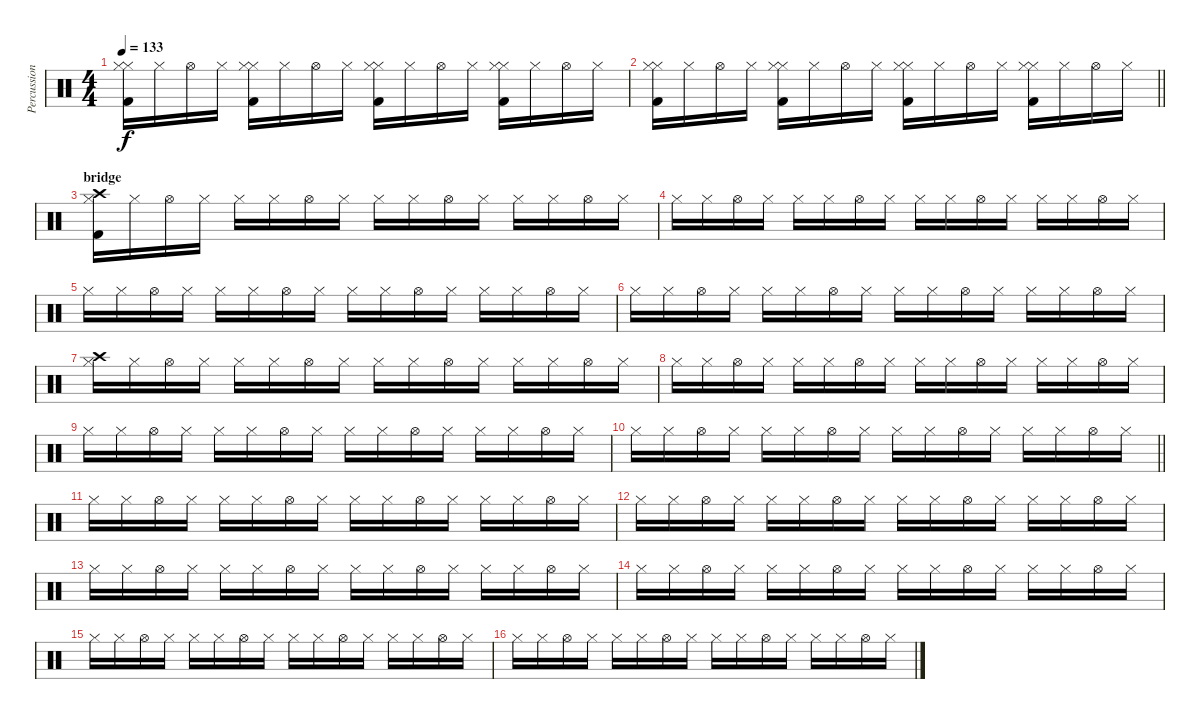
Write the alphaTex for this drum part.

\track ("Percussioni" "Percussion") {instrument percussion}
\staff {score}
\articulation defaults
\ts (4 4)
\tempo 133
\clef neutral
\ks c
("Hi-Hat (closed)" "Kick (hit) 2" "Hi-Hat (closed)").16{dy f} "Hi-Hat (closed)".16 "Hi-Hat (open)".16 "Hi-Hat (closed)".16 ("Hi-Hat (closed)" "Kick (hit) 2" "Hi-Hat (closed)").16 "Hi-Hat (closed)".16 "Hi-Hat (open)".16 "Hi-Hat (closed)".16 ("Hi-Hat (closed)" "Kick (hit) 2" "Hi-Hat (closed)").16 "Hi-Hat (closed)".16 "Hi-Hat (open)".16 "Hi-Hat (closed)".16 ("Hi-Hat (closed)" "Kick (hit) 2" "Hi-Hat (closed)").16 "Hi-Hat (closed)".16 "Hi-Hat (open)".16 "Hi-Hat (closed)".16 |
\barLineRight lightlight
("Hi-Hat (closed)" "Kick (hit) 2" "Hi-Hat (closed)").16 "Hi-Hat (closed)".16 "Hi-Hat (open)".16 "Hi-Hat (closed)".16 ("Hi-Hat (closed)" "Kick (hit) 2" "Hi-Hat (closed)").16 "Hi-Hat (closed)".16 "Hi-Hat (open)".16 "Hi-Hat (closed)".16 ("Hi-Hat (closed)" "Kick (hit) 2" "Hi-Hat (closed)").16 "Hi-Hat (closed)".16 "Hi-Hat (open)".16 "Hi-Hat (closed)".16 ("Hi-Hat (closed)" "Kick (hit) 2" "Hi-Hat (closed)").16 "Hi-Hat (closed)".16 "Hi-Hat (open)".16 "Hi-Hat (closed)".16 |
\section ("" "bridge")
("Crash high (hit)" "Hi-Hat (closed)" "Kick (hit) 2").16 "Hi-Hat (closed)".16 "Hi-Hat (open)".16 "Hi-Hat (closed)".16 "Hi-Hat (closed)".16 "Hi-Hat (closed)".16 "Hi-Hat (open)".16 "Hi-Hat (closed)".16 "Hi-Hat (closed)".16 "Hi-Hat (closed)".16 "Hi-Hat (open)".16 "Hi-Hat (closed)".16 "Hi-Hat (closed)".16 "Hi-Hat (closed)".16 "Hi-Hat (open)".16 "Hi-Hat (closed)".16 |
"Hi-Hat (closed)".16 "Hi-Hat (closed)".16 "Hi-Hat (open)".16 "Hi-Hat (closed)".16 "Hi-Hat (closed)".16 "Hi-Hat (closed)".16 "Hi-Hat (open)".16 "Hi-Hat (closed)".16 "Hi-Hat (closed)".16 "Hi-Hat (closed)".16 "Hi-Hat (open)".16 "Hi-Hat (closed)".16 "Hi-Hat (closed)".16 "Hi-Hat (closed)".16 "Hi-Hat (open)".16 "Hi-Hat (closed)".16 |
"Hi-Hat (closed)".16 "Hi-Hat (closed)".16 "Hi-Hat (open)".16 "Hi-Hat (closed)".16 "Hi-Hat (closed)".16 "Hi-Hat (closed)".16 "Hi-Hat (open)".16 "Hi-Hat (closed)".16 "Hi-Hat (closed)".16 "Hi-Hat (closed)".16 "Hi-Hat (open)".16 "Hi-Hat (closed)".16 "Hi-Hat (closed)".16 "Hi-Hat (closed)".16 "Hi-Hat (open)".16 "Hi-Hat (closed)".16 |
"Hi-Hat (closed)".16 "Hi-Hat (closed)".16 "Hi-Hat (open)".16 "Hi-Hat (closed)".16 "Hi-Hat (closed)".16 "Hi-Hat (closed)".16 "Hi-Hat (open)".16 "Hi-Hat (closed)".16 "Hi-Hat (closed)".16 "Hi-Hat (closed)".16 "Hi-Hat (open)".16 "Hi-Hat (closed)".16 "Hi-Hat (closed)".16 "Hi-Hat (closed)".16 "Hi-Hat (open)".16 "Hi-Hat (closed)".16 |
("Hi-Hat (closed)" "Crash high (hit)").16 "Hi-Hat (closed)".16 "Hi-Hat (open)".16 "Hi-Hat (closed)".16 "Hi-Hat (closed)".16 "Hi-Hat (closed)".16 "Hi-Hat (open)".16 "Hi-Hat (closed)".16 "Hi-Hat (closed)".16 "Hi-Hat (closed)".16 "Hi-Hat (open)".16 "Hi-Hat (closed)".16 "Hi-Hat (closed)".16 "Hi-Hat (closed)".16 "Hi-Hat (open)".16 "Hi-Hat (closed)".16 |
"Hi-Hat (closed)".16 "Hi-Hat (closed)".16 "Hi-Hat (open)".16 "Hi-Hat (closed)".16 "Hi-Hat (closed)".16 "Hi-Hat (closed)".16 "Hi-Hat (open)".16 "Hi-Hat (closed)".16 "Hi-Hat (closed)".16 "Hi-Hat (closed)".16 "Hi-Hat (open)".16 "Hi-Hat (closed)".16 "Hi-Hat (closed)".16 "Hi-Hat (closed)".16 "Hi-Hat (open)".16 "Hi-Hat (closed)".16 |
"Hi-Hat (closed)".16 "Hi-Hat (closed)".16 "Hi-Hat (open)".16 "Hi-Hat (closed)".16 "Hi-Hat (closed)".16 "Hi-Hat (closed)".16 "Hi-Hat (open)".16 "Hi-Hat (closed)".16 "Hi-Hat (closed)".16 "Hi-Hat (closed)".16 "Hi-Hat (open)".16 "Hi-Hat (closed)".16 "Hi-Hat (closed)".16 "Hi-Hat (closed)".16 "Hi-Hat (open)".16 "Hi-Hat (closed)".16 |
\barLineRight lightlight "Hi-Hat (closed)".16 "Hi-Hat (closed)".16 "Hi-Hat (open)".16 "Hi-Hat (closed)".16 "Hi-Hat (closed)".16 "Hi-Hat (closed)".16 "Hi-Hat (open)".16 "Hi-Hat (closed)".16 "Hi-Hat (closed)".16 "Hi-Hat (closed)".16 "Hi-Hat (open)".16 "Hi-Hat (closed)".16 "Hi-Hat (closed)".16 "Hi-Hat (closed)".16 "Hi-Hat (open)".16 "Hi-Hat (closed)".16
|
"Hi-Hat (closed)".16 "Hi-Hat (closed)".16 "Hi-Hat (open)".16 "Hi-Hat (closed)".16 "Hi-Hat (closed)".16 "Hi-Hat (closed)".16 "Hi-Hat (open)".16 "Hi-Hat (closed)".16 "Hi-Hat (closed)".16 "Hi-Hat (closed)".16 "Hi-Hat (open)".16 "Hi-Hat (closed)".16 "Hi-Hat (closed)".16 "Hi-Hat (closed)".16 "Hi-Hat (open)".16 "Hi-Hat (closed)".16 |
"Hi-Hat (closed)".16 "Hi-Hat (closed)".16 "Hi-Hat (open)".16 "Hi-Hat (closed)".16 "Hi-Hat (closed)".16 "Hi-Hat (closed)".16 "Hi-Hat (open)".16 "Hi-Hat (closed)".16 "Hi-Hat (closed)".16 "Hi-Hat (closed)".16 "Hi-Hat (open)".16 "Hi-Hat (closed)".16 "Hi-Hat (closed)".16 "Hi-Hat (closed)".16 "Hi-Hat (open)".16 "Hi-Hat (closed)".16 |
"Hi-Hat (closed)".16 "Hi-Hat (closed)".16 "Hi-Hat (open)".16 "Hi-Hat (closed)".16 "Hi-Hat (closed)".16 "Hi-Hat (closed)".16 "Hi-Hat (open)".16 "Hi-Hat (closed)".16 "Hi-Hat (closed)".16 "Hi-Hat (closed)".16 "Hi-Hat (open)".16 "Hi-Hat (closed)".16 "Hi-Hat (closed)".16 "Hi-Hat (closed)".16 "Hi-Hat (open)".16 "Hi-Hat (closed)".16 |
"Hi-Hat (closed)".16 "Hi-Hat (closed)".16 "Hi-Hat (open)".16 "Hi-Hat (closed)".16 "Hi-Hat (closed)".16 "Hi-Hat (closed)".16 "Hi-Hat (open)".16 "Hi-Hat (closed)".16 "Hi-Hat (closed)".16 "Hi-Hat (closed)".16 "Hi-Hat (open)".16 "Hi-Hat (closed)".16 "Hi-Hat (closed)".16 "Hi-Hat (closed)".16 "Hi-Hat (open)".16 "Hi-Hat (closed)".16 |
"Hi-Hat (closed)".16 "Hi-Hat (closed)".16 "Hi-Hat (open)".16 "Hi-Hat (closed)".16 "Hi-Hat (closed)".16 "Hi-Hat (closed)".16 "Hi-Hat (open)".16 "Hi-Hat (closed)".16 "Hi-Hat (closed)".16 "Hi-Hat (closed)".16 "Hi-Hat (open)".16 "Hi-Hat (closed)".16 "Hi-Hat (closed)".16 "Hi-Hat (closed)".16 "Hi-Hat (open)".16 "Hi-Hat (closed)".16 |
"Hi-Hat (closed)".16 "Hi-Hat (closed)".16 "Hi-Hat (open)".16 "Hi-Hat (closed)".16 "Hi-Hat (closed)".16 "Hi-Hat (closed)".16 "Hi-Hat (open)".16 "Hi-Hat (closed)".16 "Hi-Hat (closed)".16 "Hi-Hat (closed)".16 "Hi-Hat (open)".16 "Hi-Hat (closed)".16 "Hi-Hat (closed)".16 "Hi-Hat (closed)".16 "Hi-Hat (open)".16 "Hi-Hat (closed)".16
